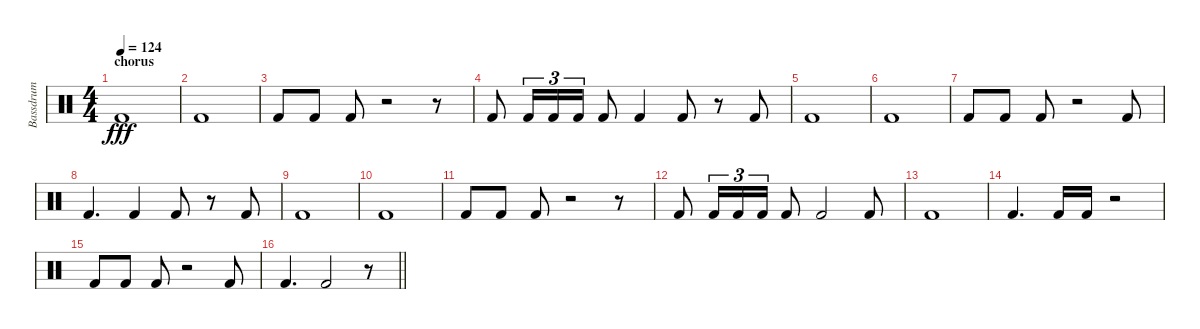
\track ("Bassdrum" "Bassdrum") {instrument percussion}
\staff {score}
\articulation defaults
\ts (4 4)
\section ("" "chorus")
\tempo 124
\clef neutral
\ks c "Kick (hit) 2".1{dy fff}
|
"Kick (hit) 2".1 |
"Kick (hit) 2".8 "Kick (hit) 2".8 "Kick (hit) 2".8 r.2 r.8 |
"Kick (hit) 2".8 "Kick (hit) 2".16{tu (3 2)} "Kick (hit) 2".16{tu (3 2)} "Kick (hit) 2".16{tu (3 2)} "Kick (hit) 2".8 "Kick (hit) 2".4 "Kick (hit) 2".8 r.8 "Kick (hit) 2".8 |
"Kick (hit) 2".1 |
"Kick (hit) 2".1 |
"Kick (hit) 2".8 "Kick (hit) 2".8 "Kick (hit) 2".8 r.2 "Kick (hit) 2".8 |
"Kick (hit) 2".4{d} "Kick (hit) 2".4 "Kick (hit) 2".8 r.8 "Kick (hit) 2".8 |
"Kick (hit) 2".1 |
"Kick (hit) 2".1 |
"Kick (hit) 2".8 "Kick (hit) 2".8 "Kick (hit) 2".8 r.2 r.8 |
"Kick (hit) 2".8 "Kick (hit) 2".16{tu (3 2)} "Kick (hit) 2".16{tu (3 2)} "Kick (hit) 2".16{tu (3 2)} "Kick (hit) 2".8 "Kick (hit) 2".2 "Kick (hit) 2".8 |
"Kick (hit) 2".1 |
"Kick (hit) 2".4{d} "Kick (hit) 2".16 "Kick (hit) 2".16 r.2 |
"Kick (hit) 2".8 "Kick (hit) 2".8 "Kick (hit) 2".8 r.2 "Kick (hit) 2".8 |
\barLineRight lightlight "Kick (hit) 2".4{d} "Kick (hit) 2".2
r.8
